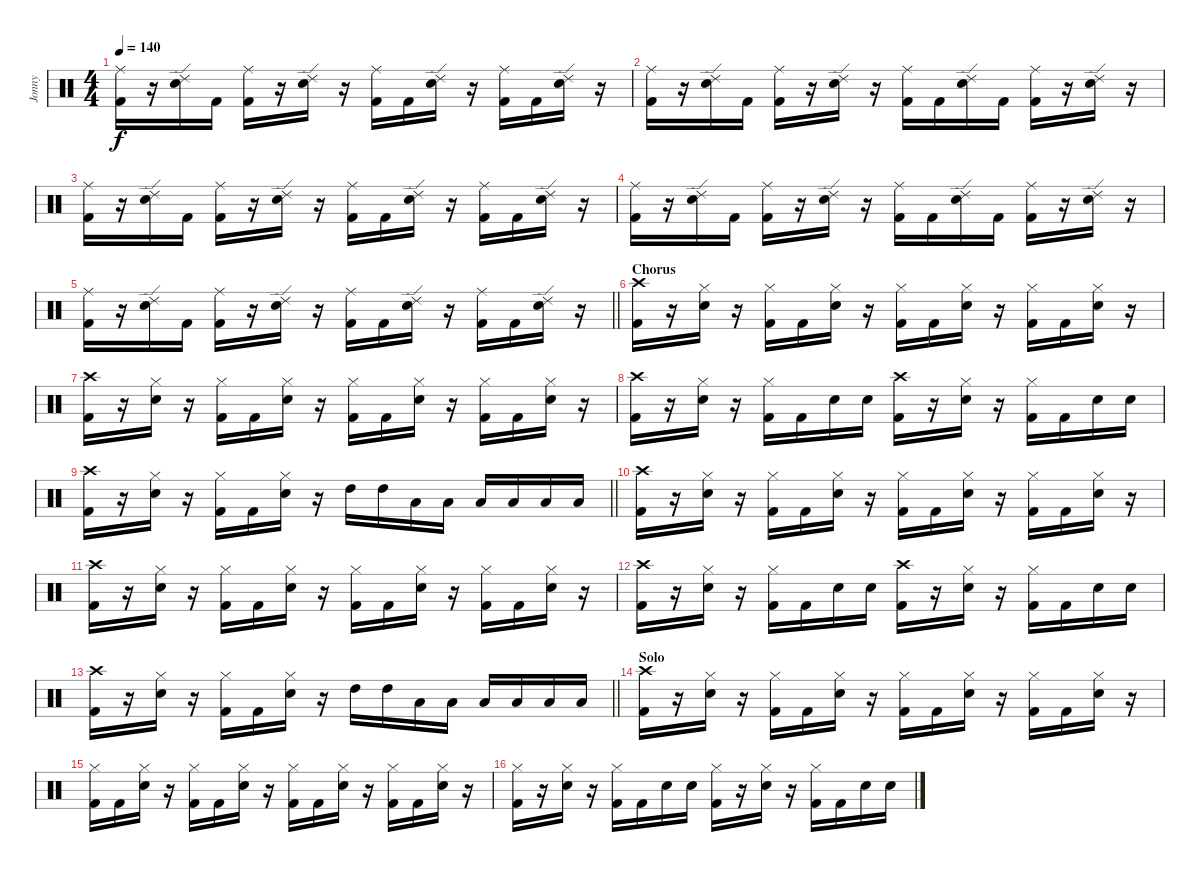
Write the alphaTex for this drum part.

\track ("Jonny" "Jonny") {instrument percussion}
\staff {score}
\articulation defaults
\ts (4 4)
\tempo 140
\clef neutral
\ks c
("Ride (middle)" "Kick (hit) 2").16{dy f} r.16 ("Ride (edge) 2" "Electric Snare (hit)").16 "Kick (hit) 2".16 ("Ride (middle)" "Kick (hit) 2").16 r.16 ("Ride (edge) 2" "Electric Snare (hit)").16 r.16 ("Ride (middle)" "Kick (hit) 2").16 "Kick (hit) 2".16 ("Ride (edge) 2" "Electric Snare (hit)").16 r.16 ("Ride (middle)" "Kick (hit) 2").16 "Kick (hit) 2".16 ("Ride (edge) 2" "Electric Snare (hit)").16 r.16 |
("Ride (middle)" "Kick (hit) 2").16 r.16 ("Ride (edge) 2" "Electric Snare (hit)").16 "Kick (hit) 2".16 ("Ride (middle)" "Kick (hit) 2").16 r.16 ("Ride (edge) 2" "Electric Snare (hit)").16 r.16 ("Ride (middle)" "Kick (hit) 2").16 "Kick (hit) 2".16 ("Ride (edge) 2" "Electric Snare (hit)").16 "Kick (hit) 2".16 ("Ride (middle)" "Kick (hit) 2").16 r.16 ("Ride (edge) 2" "Electric Snare (hit)").16 r.16 |
("Ride (middle)" "Kick (hit) 2").16 r.16 ("Ride (edge) 2" "Electric Snare (hit)").16 "Kick (hit) 2".16 ("Ride (middle)" "Kick (hit) 2").16 r.16 ("Ride (edge) 2" "Electric Snare (hit)").16 r.16 ("Ride (middle)" "Kick (hit) 2").16 "Kick (hit) 2".16 ("Ride (edge) 2" "Electric Snare (hit)").16 r.16 ("Ride (middle)" "Kick (hit) 2").16 "Kick (hit) 2".16 ("Ride (edge) 2" "Electric Snare (hit)").16 r.16 |
("Ride (middle)" "Kick (hit) 2").16 r.16 ("Ride (edge) 2" "Electric Snare (hit)").16 "Kick (hit) 2".16 ("Ride (middle)" "Kick (hit) 2").16 r.16 ("Ride (edge) 2" "Electric Snare (hit)").16 r.16 ("Ride (middle)" "Kick (hit) 2").16 "Kick (hit) 2".16 ("Ride (edge) 2" "Electric Snare (hit)").16 "Kick (hit) 2".16 ("Ride (middle)" "Kick (hit) 2").16 r.16 ("Ride (edge) 2" "Electric Snare (hit)").16 r.16 |
\barLineRight lightlight
("Ride (middle)" "Kick (hit) 2").16 r.16 ("Ride (edge) 2" "Electric Snare (hit)").16 "Kick (hit) 2".16 ("Ride (middle)" "Kick (hit) 2").16 r.16 ("Ride (edge) 2" "Electric Snare (hit)").16 r.16 ("Ride (middle)" "Kick (hit) 2").16 "Kick (hit) 2".16 ("Ride (edge) 2" "Electric Snare (hit)").16 r.16 ("Ride (middle)" "Kick (hit) 2").16 "Kick (hit) 2".16 ("Ride (edge) 2" "Electric Snare (hit)").16 r.16 |
\section ("" "Chorus")
("Crash high (hit)" "Kick (hit) 2").16 r.16 ("Hi-Hat (closed)" "Electric Snare (hit)").16 r.16 ("Hi-Hat (closed)" "Kick (hit) 2").16 "Kick (hit) 2".16 ("Hi-Hat (closed)" "Electric Snare (hit)").16 r.16 ("Hi-Hat (closed)" "Kick (hit) 2").16 "Kick (hit) 2".16 ("Hi-Hat (closed)" "Electric Snare (hit)").16 r.16 ("Hi-Hat (closed)" "Kick (hit) 2").16 "Kick (hit) 2".16 ("Hi-Hat (closed)" "Electric Snare (hit)").16 r.16 |
("Crash high (hit)" "Kick (hit) 2").16 r.16 ("Hi-Hat (closed)" "Electric Snare (hit)").16 r.16 ("Hi-Hat (closed)" "Kick (hit) 2").16 "Kick (hit) 2".16 ("Hi-Hat (closed)" "Electric Snare (hit)").16 r.16 ("Hi-Hat (closed)" "Kick (hit) 2").16 "Kick (hit) 2".16 ("Hi-Hat (closed)" "Electric Snare (hit)").16 r.16 ("Hi-Hat (closed)" "Kick (hit) 2").16 "Kick (hit) 2".16 ("Hi-Hat (closed)" "Electric Snare (hit)").16 r.16 |
("Crash high (hit)" "Kick (hit) 2").16 r.16 ("Hi-Hat (closed)" "Electric Snare (hit)").16 r.16 ("Hi-Hat (closed)" "Kick (hit) 2").16 "Kick (hit) 2".16 "Electric Snare (hit)".16 "Electric Snare (hit)".16 ("Crash high (hit)" "Kick (hit) 2").16 r.16 ("Hi-Hat (closed)" "Electric Snare (hit)").16 r.16 ("Hi-Hat (closed)" "Kick (hit) 2").16 "Kick (hit) 2".16 "Electric Snare (hit)".16 "Electric Snare (hit)".16 |
\barLineRight lightlight
("Crash high (hit)" "Kick (hit) 2").16 r.16 ("Hi-Hat (closed)" "Electric Snare (hit)").16 r.16 ("Hi-Hat (closed)" "Kick (hit) 2").16 "Kick (hit) 2".16 ("Hi-Hat (closed)" "Electric Snare (hit)").16 r.16 "High Tom (hit)".16 "High Tom (hit)".16 "Low Tom (hit)".16 "Low Tom (hit)".16 "Low Floor Tom (hit)".16 "Low Tom (hit)".16 "Low Floor Tom (hit)".16 "Low Floor Tom (hit)".16 |
("Crash high (hit)" "Kick (hit) 2").16 r.16 ("Hi-Hat (closed)" "Electric Snare (hit)").16 r.16 ("Hi-Hat (closed)" "Kick (hit) 2").16 "Kick (hit) 2".16 ("Hi-Hat (closed)" "Electric Snare (hit)").16 r.16 ("Hi-Hat (closed)" "Kick (hit) 2").16 "Kick (hit) 2".16 ("Hi-Hat (closed)" "Electric Snare (hit)").16 r.16 ("Hi-Hat (closed)" "Kick (hit) 2").16 "Kick (hit) 2".16 ("Hi-Hat (closed)" "Electric Snare (hit)").16 r.16 |
("Crash high (hit)" "Kick (hit) 2").16 r.16 ("Hi-Hat (closed)" "Electric Snare (hit)").16 r.16 ("Hi-Hat (closed)" "Kick (hit) 2").16 "Kick (hit) 2".16 ("Hi-Hat (closed)" "Electric Snare (hit)").16 r.16 ("Hi-Hat (closed)" "Kick (hit) 2").16 "Kick (hit) 2".16 ("Hi-Hat (closed)" "Electric Snare (hit)").16 r.16 ("Hi-Hat (closed)" "Kick (hit) 2").16 "Kick (hit) 2".16 ("Hi-Hat (closed)" "Electric Snare (hit)").16 r.16 |
("Crash high (hit)" "Kick (hit) 2").16 r.16 ("Hi-Hat (closed)" "Electric Snare (hit)").16 r.16 ("Hi-Hat (closed)" "Kick (hit) 2").16 "Kick (hit) 2".16 "Electric Snare (hit)".16 "Electric Snare (hit)".16 ("Crash high (hit)" "Kick (hit) 2").16 r.16 ("Hi-Hat (closed)" "Electric Snare (hit)").16 r.16 ("Hi-Hat (closed)" "Kick (hit) 2").16 "Kick (hit) 2".16 "Electric Snare (hit)".16 "Electric Snare (hit)".16 |
\barLineRight lightlight
("Crash high (hit)" "Kick (hit) 2").16 r.16 ("Hi-Hat (closed)" "Electric Snare (hit)").16 r.16 ("Hi-Hat (closed)" "Kick (hit) 2").16 "Kick (hit) 2".16 ("Hi-Hat (closed)" "Electric Snare (hit)").16 r.16 "High Tom (hit)".16 "High Tom (hit)".16 "Low Tom (hit)".16 "Low Tom (hit)".16 "Low Floor Tom (hit)".16 "Low Tom (hit)".16 "Low Floor Tom (hit)".16 "Low Floor Tom (hit)".16 |
\section ("" "Solo")
("Crash high (hit)" "Kick (hit) 2").16 r.16 ("Hi-Hat (closed)" "Electric Snare (hit)").16 r.16 ("Hi-Hat (closed)" "Kick (hit) 2").16 "Kick (hit) 2".16 ("Hi-Hat (closed)" "Electric Snare (hit)").16 r.16 ("Hi-Hat (closed)" "Kick (hit) 2").16 "Kick (hit) 2".16 ("Hi-Hat (closed)" "Electric Snare (hit)").16 r.16 ("Hi-Hat (closed)" "Kick (hit) 2").16 "Kick (hit) 2".16 ("Hi-Hat (closed)" "Electric Snare (hit)").16 r.16 |
("Hi-Hat (closed)" "Kick (hit) 2").16 "Kick (hit) 2".16 ("Hi-Hat (closed)" "Electric Snare (hit)").16 r.16 ("Hi-Hat (closed)" "Kick (hit) 2").16 "Kick (hit) 2".16 ("Hi-Hat (closed)" "Electric Snare (hit)").16 r.16 ("Hi-Hat (closed)" "Kick (hit) 2").16 "Kick (hit) 2".16 ("Hi-Hat (closed)" "Electric Snare (hit)").16 r.16 ("Hi-Hat (closed)" "Kick (hit) 2").16 "Kick (hit) 2".16 ("Hi-Hat (closed)" "Electric Snare (hit)").16 r.16 |
("Hi-Hat (closed)" "Kick (hit) 2").16 r.16 ("Hi-Hat (closed)" "Electric Snare (hit)").16 r.16 ("Hi-Hat (closed)" "Kick (hit) 2").16 "Kick (hit) 2".16 "Electric Snare (hit)".16 "Electric Snare (hit)".16 ("Hi-Hat (closed)" "Kick (hit) 2").16 r.16 ("Hi-Hat (closed)" "Electric Snare (hit)").16 r.16 ("Hi-Hat (closed)" "Kick (hit) 2").16 "Kick (hit) 2".16 "Electric Snare (hit)".16 "Electric Snare (hit)".16
